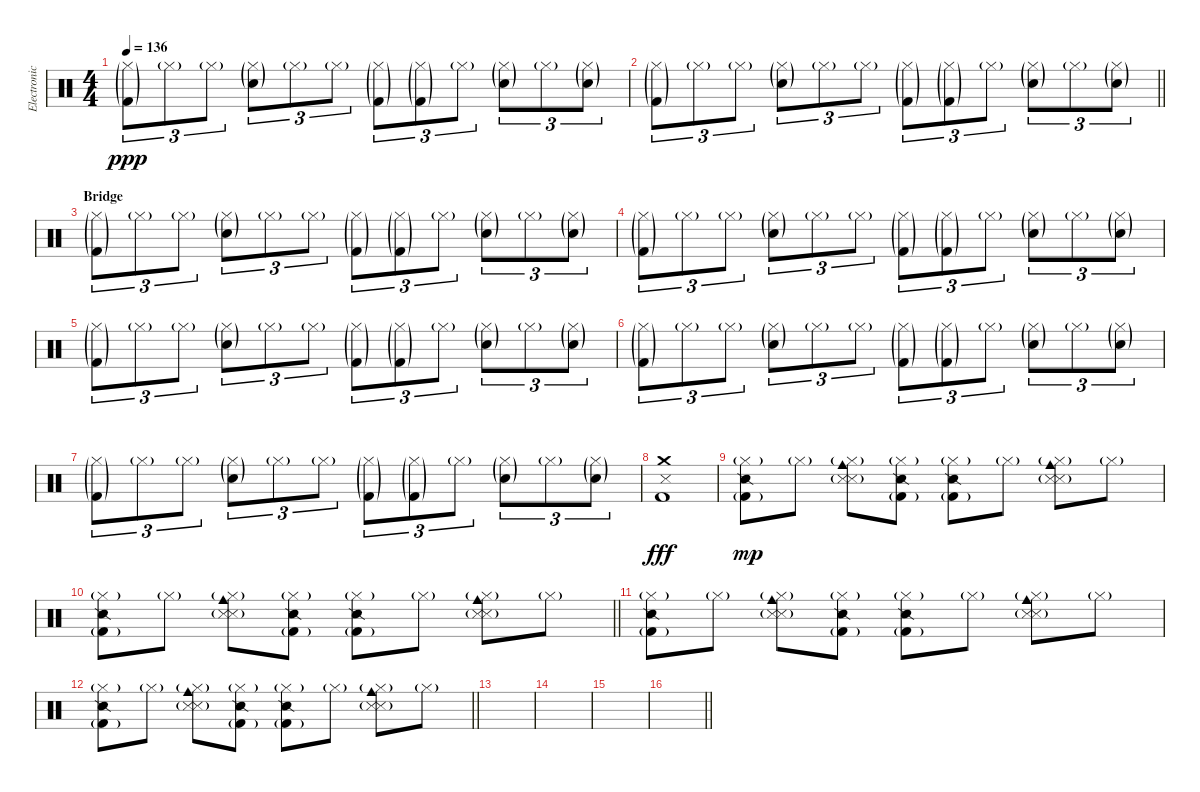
\track ("Electronic Drums" "Electronic") {instrument percussion}
\staff {score}
\articulation defaults
\ts (4 4)
\tempo 136
\clef neutral
\ks c
("Hi-Hat (closed)"{g} "Kick (hit) 2"{g}).8{tu (3 2) dy ppp} "Hi-Hat (closed)"{g}.8{tu (3 2)} "Hi-Hat (closed)"{g}.8{tu (3 2)} ("Hi-Hat (closed)"{g} "Snare (hit) 2"{g}).8{tu (3 2)} "Hi-Hat (closed)"{g}.8{tu (3 2)} "Hi-Hat (closed)"{g}.8{tu (3 2)} ("Hi-Hat (closed)"{g} "Kick (hit) 2"{g}).8{tu (3 2)} ("Hi-Hat (closed)"{g} "Kick (hit) 2"{g}).8{tu (3 2)} "Hi-Hat (closed)"{g}.8{tu (3 2)} ("Hi-Hat (closed)"{g} "Snare (hit) 2"{g}).8{tu (3 2)} "Hi-Hat (closed)"{g}.8{tu (3 2)} ("Hi-Hat (closed)"{g} "Snare (hit) 2"{g}).8{tu (3 2)} |
\barLineRight lightlight
("Hi-Hat (closed)"{g} "Kick (hit) 2"{g}).8{tu (3 2)} "Hi-Hat (closed)"{g}.8{tu (3 2)} "Hi-Hat (closed)"{g}.8{tu (3 2)} ("Hi-Hat (closed)"{g} "Snare (hit) 2"{g}).8{tu (3 2)} "Hi-Hat (closed)"{g}.8{tu (3 2)} "Hi-Hat (closed)"{g}.8{tu (3 2)} ("Hi-Hat (closed)"{g} "Kick (hit) 2"{g}).8{tu (3 2)} ("Hi-Hat (closed)"{g} "Kick (hit) 2"{g}).8{tu (3 2)} "Hi-Hat (closed)"{g}.8{tu (3 2)} ("Hi-Hat (closed)"{g} "Snare (hit) 2"{g}).8{tu (3 2)} "Hi-Hat (closed)"{g}.8{tu (3 2)} ("Hi-Hat (closed)"{g} "Snare (hit) 2"{g}).8{tu (3 2)} |
\section ("" "Bridge")
("Hi-Hat (closed)"{g} "Kick (hit) 2"{g}).8{tu (3 2)} "Hi-Hat (closed)"{g}.8{tu (3 2)} "Hi-Hat (closed)"{g}.8{tu (3 2)} ("Hi-Hat (closed)"{g} "Snare (hit) 2"{g}).8{tu (3 2)} "Hi-Hat (closed)"{g}.8{tu (3 2)} "Hi-Hat (closed)"{g}.8{tu (3 2)} ("Hi-Hat (closed)"{g} "Kick (hit) 2"{g}).8{tu (3 2)} ("Hi-Hat (closed)"{g} "Kick (hit) 2"{g}).8{tu (3 2)} "Hi-Hat (closed)"{g}.8{tu (3 2)} ("Hi-Hat (closed)"{g} "Snare (hit) 2"{g}).8{tu (3 2)} "Hi-Hat (closed)"{g}.8{tu (3 2)} ("Hi-Hat (closed)"{g} "Snare (hit) 2"{g}).8{tu (3 2)} |
("Hi-Hat (closed)"{g} "Kick (hit) 2"{g}).8{tu (3 2)} "Hi-Hat (closed)"{g}.8{tu (3 2)} "Hi-Hat (closed)"{g}.8{tu (3 2)} ("Hi-Hat (closed)"{g} "Snare (hit) 2"{g}).8{tu (3 2)} "Hi-Hat (closed)"{g}.8{tu (3 2)} "Hi-Hat (closed)"{g}.8{tu (3 2)} ("Hi-Hat (closed)"{g} "Kick (hit) 2"{g}).8{tu (3 2)} ("Hi-Hat (closed)"{g} "Kick (hit) 2"{g}).8{tu (3 2)} "Hi-Hat (closed)"{g}.8{tu (3 2)} ("Hi-Hat (closed)"{g} "Snare (hit) 2"{g}).8{tu (3 2)} "Hi-Hat (closed)"{g}.8{tu (3 2)} ("Hi-Hat (closed)"{g} "Snare (hit) 2"{g}).8{tu (3 2)} |
("Hi-Hat (closed)"{g} "Kick (hit) 2"{g}).8{tu (3 2)} "Hi-Hat (closed)"{g}.8{tu (3 2)} "Hi-Hat (closed)"{g}.8{tu (3 2)} ("Hi-Hat (closed)"{g} "Snare (hit) 2"{g}).8{tu (3 2)} "Hi-Hat (closed)"{g}.8{tu (3 2)} "Hi-Hat (closed)"{g}.8{tu (3 2)} ("Hi-Hat (closed)"{g} "Kick (hit) 2"{g}).8{tu (3 2)} ("Hi-Hat (closed)"{g} "Kick (hit) 2"{g}).8{tu (3 2)} "Hi-Hat (closed)"{g}.8{tu (3 2)} ("Hi-Hat (closed)"{g} "Snare (hit) 2"{g}).8{tu (3 2)} "Hi-Hat (closed)"{g}.8{tu (3 2)} ("Hi-Hat (closed)"{g} "Snare (hit) 2"{g}).8{tu (3 2)} |
("Hi-Hat (closed)"{g} "Kick (hit) 2"{g}).8{tu (3 2)} "Hi-Hat (closed)"{g}.8{tu (3 2)} "Hi-Hat (closed)"{g}.8{tu (3 2)} ("Hi-Hat (closed)"{g} "Snare (hit) 2"{g}).8{tu (3 2)} "Hi-Hat (closed)"{g}.8{tu (3 2)} "Hi-Hat (closed)"{g}.8{tu (3 2)} ("Hi-Hat (closed)"{g} "Kick (hit) 2"{g}).8{tu (3 2)} ("Hi-Hat (closed)"{g} "Kick (hit) 2"{g}).8{tu (3 2)} "Hi-Hat (closed)"{g}.8{tu (3 2)} ("Hi-Hat (closed)"{g} "Snare (hit) 2"{g}).8{tu (3 2)} "Hi-Hat (closed)"{g}.8{tu (3 2)} ("Hi-Hat (closed)"{g} "Snare (hit) 2"{g}).8{tu (3 2)} |
("Hi-Hat (closed)"{g} "Kick (hit) 2"{g}).8{tu (3 2)} "Hi-Hat (closed)"{g}.8{tu (3 2)} "Hi-Hat (closed)"{g}.8{tu (3 2)} ("Hi-Hat (closed)"{g} "Snare (hit) 2"{g}).8{tu (3 2)} "Hi-Hat (closed)"{g}.8{tu (3 2)} "Hi-Hat (closed)"{g}.8{tu (3 2)} ("Hi-Hat (closed)"{g} "Kick (hit) 2"{g}).8{tu (3 2)} ("Hi-Hat (closed)"{g} "Kick (hit) 2"{g}).8{tu (3 2)} "Hi-Hat (closed)"{g}.8{tu (3 2)} ("Hi-Hat (closed)"{g} "Snare (hit) 2"{g}).8{tu (3 2)} "Hi-Hat (closed)"{g}.8{tu (3 2)} ("Hi-Hat (closed)"{g} "Snare (hit) 2"{g}).8{tu (3 2)} |
("Crash medium (hit)" "Snare (side stick) 3" "Kick (hit) 2").1{dy fff} |
("Hi-Hat (closed)"{g} "Kick (hit) 2"{g} "Snare (side stick) 2").8{dy mp} "Hi-Hat (closed)"{g}.8 ("Hi-Hat (closed)"{g} "Snare (side stick) 3"{g} "Metronome (hit)" "Cowbell medium (hit)").8 ("Hi-Hat (closed)"{g} "Kick (hit) 2"{g} "Snare (side stick) 2").8 ("Hi-Hat (closed)"{g} "Kick (hit) 2"{g} "Snare (side stick) 2").8 "Hi-Hat (closed)"{g}.8 ("Hi-Hat (closed)"{g} "Snare (side stick) 3"{g} "Metronome (hit)" "Cowbell medium (hit)").8 "Hi-Hat (closed)"{g}.8 |
\barLineRight lightlight
("Hi-Hat (closed)"{g} "Kick (hit) 2"{g} "Snare (side stick) 2").8 "Hi-Hat (closed)"{g}.8 ("Hi-Hat (closed)"{g} "Snare (side stick) 3"{g} "Metronome (hit)" "Cowbell medium (hit)").8 ("Hi-Hat (closed)"{g} "Kick (hit) 2"{g} "Snare (side stick) 2").8 ("Hi-Hat (closed)"{g} "Kick (hit) 2"{g} "Snare (side stick) 2").8 "Hi-Hat (closed)"{g}.8 ("Hi-Hat (closed)"{g} "Snare (side stick) 3"{g} "Metronome (hit)" "Cowbell medium (hit)").8 "Hi-Hat (closed)"{g}.8 |
("Hi-Hat (closed)"{g} "Kick (hit) 2"{g} "Snare (side stick) 2").8 "Hi-Hat (closed)"{g}.8 ("Hi-Hat (closed)"{g} "Snare (side stick) 3"{g} "Metronome (hit)" "Cowbell medium (hit)").8 ("Hi-Hat (closed)"{g} "Kick (hit) 2"{g} "Snare (side stick) 2").8 ("Hi-Hat (closed)"{g} "Kick (hit) 2"{g} "Snare (side stick) 2").8 "Hi-Hat (closed)"{g}.8 ("Hi-Hat (closed)"{g} "Snare (side stick) 3"{g} "Metronome (hit)" "Cowbell medium (hit)").8 "Hi-Hat (closed)"{g}.8 |
\barLineRight lightlight
("Hi-Hat (closed)"{g} "Kick (hit) 2"{g} "Snare (side stick) 2").8 "Hi-Hat (closed)"{g}.8 ("Hi-Hat (closed)"{g} "Snare (side stick) 3"{g} "Metronome (hit)" "Cowbell medium (hit)").8 ("Hi-Hat (closed)"{g} "Kick (hit) 2"{g} "Snare (side stick) 2").8 ("Hi-Hat (closed)"{g} "Kick (hit) 2"{g} "Snare (side stick) 2").8 "Hi-Hat (closed)"{g}.8 ("Hi-Hat (closed)"{g} "Snare (side stick) 3"{g} "Metronome (hit)" "Cowbell medium (hit)").8 "Hi-Hat (closed)"{g}.8 |
|
|
|
\barLineRight lightlight
